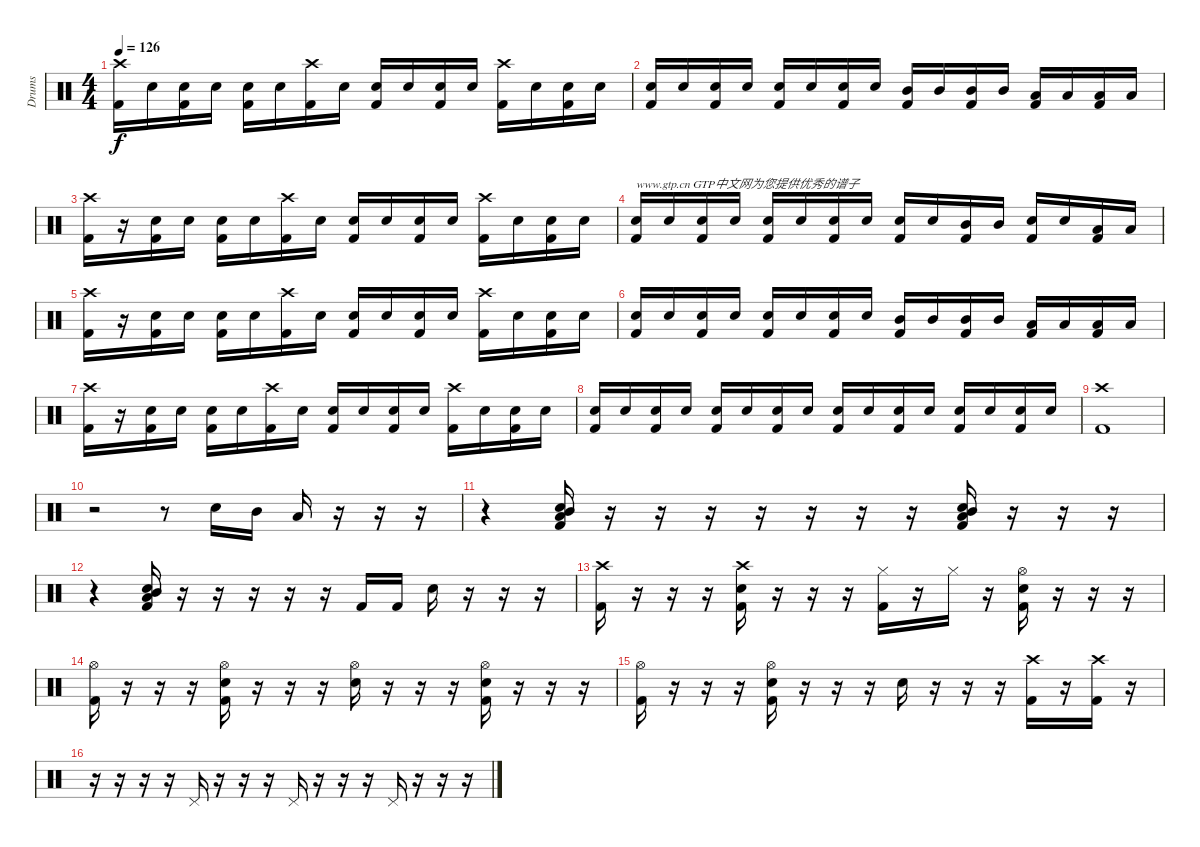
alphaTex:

\track ("Drums" "Drums") {instrument percussion}
\staff {score}
\articulation defaults
\ts (4 4)
\tempo 126
\clef neutral
\ks c
("Crash high (hit)" "Kick (hit) 2").16{dy f} "Snare (hit) 2".16 ("Snare (hit) 2" "Kick (hit) 2").16 "Snare (hit) 2".16 ("Snare (hit) 2" "Kick (hit) 2").16 "Snare (hit) 2".16 ("Crash high (hit)" "Kick (hit) 2").16 "Snare (hit) 2".16 ("Snare (hit) 2" "Kick (hit) 2").16 "Snare (hit) 2".16 ("Snare (hit) 2" "Kick (hit) 2").16 "Snare (hit) 2".16 ("Crash high (hit)" "Kick (hit) 2").16 "Snare (hit) 2".16 ("Snare (hit) 2" "Kick (hit) 2").16 "Snare (hit) 2".16 |
("Snare (hit) 2" "Kick (hit) 2").16 "Snare (hit) 2".16 ("Snare (hit) 2" "Kick (hit) 2").16 "Snare (hit) 2".16 ("Snare (hit) 2" "Kick (hit) 2").16 "Snare (hit) 2".16 ("Snare (hit) 2" "Kick (hit) 2").16 "Snare (hit) 2".16 ("Mid Tom (hit)" "Kick (hit) 2").16 "Mid Tom (hit)".16 ("Mid Tom (hit)" "Kick (hit) 2").16 "Mid Tom (hit)".16 ("Low Floor Tom (hit)" "Kick (hit) 2").16 "Low Floor Tom (hit)".16 ("Low Floor Tom (hit)" "Kick (hit) 2").16 "Low Floor Tom (hit)".16 |
("Crash high (hit)" "Kick (hit) 2").16 r.16 ("Snare (hit) 2" "Kick (hit) 2").16 "Snare (hit) 2".16 ("Snare (hit) 2" "Kick (hit) 2").16 "Snare (hit) 2".16 ("Crash high (hit)" "Kick (hit) 2").16 "Snare (hit) 2".16 ("Snare (hit) 2" "Kick (hit) 2").16 "Snare (hit) 2".16 ("Snare (hit) 2" "Kick (hit) 2").16 "Snare (hit) 2".16 ("Crash high (hit)" "Kick (hit) 2").16 "Snare (hit) 2".16 ("Snare (hit) 2" "Kick (hit) 2").16 "Snare (hit) 2".16 |
("Snare (hit) 2" "Kick (hit) 2").16{txt "www.gtp.cn GTP中文网为您提供优秀的谱子"} "Snare (hit) 2".16 ("Snare (hit) 2" "Kick (hit) 2").16 "Snare (hit) 2".16 ("Snare (hit) 2" "Kick (hit) 2").16 "Snare (hit) 2".16 ("Snare (hit) 2" "Kick (hit) 2").16 "Snare (hit) 2".16 ("Snare (hit) 2" "Kick (hit) 2").16 "Snare (hit) 2".16 ("Mid Tom (hit)" "Kick (hit) 2").16 "Mid Tom (hit)".16 ("Snare (hit) 2" "Kick (hit) 2").16 "Snare (hit) 2".16 ("Low Floor Tom (hit)" "Kick (hit) 2").16 "Low Floor Tom (hit)".16 |
("Crash high (hit)" "Kick (hit) 2").16 r.16 ("Snare (hit) 2" "Kick (hit) 2").16 "Snare (hit) 2".16 ("Snare (hit) 2" "Kick (hit) 2").16 "Snare (hit) 2".16 ("Crash high (hit)" "Kick (hit) 2").16 "Snare (hit) 2".16 ("Snare (hit) 2" "Kick (hit) 2").16 "Snare (hit) 2".16 ("Snare (hit) 2" "Kick (hit) 2").16 "Snare (hit) 2".16 ("Crash high (hit)" "Kick (hit) 2").16 "Snare (hit) 2".16 ("Snare (hit) 2" "Kick (hit) 2").16 "Snare (hit) 2".16 |
("Snare (hit) 2" "Kick (hit) 2").16 "Snare (hit) 2".16 ("Snare (hit) 2" "Kick (hit) 2").16 "Snare (hit) 2".16 ("Snare (hit) 2" "Kick (hit) 2").16 "Snare (hit) 2".16 ("Snare (hit) 2" "Kick (hit) 2").16 "Snare (hit) 2".16 ("Mid Tom (hit)" "Kick (hit) 2").16 "Mid Tom (hit)".16 ("Mid Tom (hit)" "Kick (hit) 2").16 "Mid Tom (hit)".16 ("Low Floor Tom (hit)" "Kick (hit) 2").16 "Low Floor Tom (hit)".16 ("Low Floor Tom (hit)" "Kick (hit) 2").16 "Low Floor Tom (hit)".16 |
("Crash high (hit)" "Kick (hit) 2").16 r.16 ("Snare (hit) 2" "Kick (hit) 2").16 "Snare (hit) 2".16 ("Snare (hit) 2" "Kick (hit) 2").16 "Snare (hit) 2".16 ("Crash high (hit)" "Kick (hit) 2").16 "Snare (hit) 2".16 ("Snare (hit) 2" "Kick (hit) 2").16 "Snare (hit) 2".16 ("Snare (hit) 2" "Kick (hit) 2").16 "Snare (hit) 2".16 ("Crash high (hit)" "Kick (hit) 2").16 "Snare (hit) 2".16 ("Snare (hit) 2" "Kick (hit) 2").16 "Snare (hit) 2".16 |
("Snare (hit) 2" "Kick (hit) 2").16 "Snare (hit) 2".16 ("Snare (hit) 2" "Kick (hit) 2").16 "Snare (hit) 2".16 ("Snare (hit) 2" "Kick (hit) 2").16 "Snare (hit) 2".16 ("Snare (hit) 2" "Kick (hit) 2").16 "Snare (hit) 2".16 ("Snare (hit) 2" "Kick (hit) 2").16 "Snare (hit) 2".16 ("Snare (hit) 2" "Kick (hit) 2").16 "Snare (hit) 2".16 ("Snare (hit) 2" "Kick (hit) 2").16 "Snare (hit) 2".16 ("Snare (hit) 2" "Kick (hit) 2").16 "Snare (hit) 2".16 |
("Crash high (hit)" "Kick (hit) 2").1 |
r.2 r.8 "Snare (hit) 2".16 "Mid Tom (hit)".16 "Low Floor Tom (hit)".16 r.16 r.16 r.16 |
r.4 ("Mid Tom (hit)" "Low Floor Tom (hit)" "Snare (hit) 2" "Kick (hit) 2").16 r.16 r.16 r.16 r.16 r.16 r.16 r.16 ("Mid Tom (hit)" "Low Floor Tom (hit)" "Snare (hit) 2" "Kick (hit) 2").16 r.16 r.16 r.16 |
r.4 ("Mid Tom (hit)" "Low Floor Tom (hit)" "Snare (hit) 2" "Kick (hit) 2").16 r.16 r.16 r.16 r.16 r.16 "Kick (hit) 2".16 "Kick (hit) 2".16 "Snare (hit) 2".16 r.16 r.16 r.16 |
("Crash high (hit)" "Kick (hit) 2").16 r.16 r.16 r.16 ("Crash high (hit)" "Snare (hit) 2" "Kick (hit) 2").16 r.16 r.16 r.16 ("Hi-Hat (closed)" "Kick (hit) 2").16 r.16 "Hi-Hat (closed)".16 r.16 ("Hi-Hat (open)" "Snare (hit) 2" "Kick (hit) 2").16 r.16 r.16 r.16 |
("Hi-Hat (open)" "Kick (hit) 2").16 r.16 r.16 r.16 ("Hi-Hat (open)" "Snare (hit) 2" "Kick (hit) 2").16 r.16 r.16 r.16 ("Hi-Hat (open)" "Snare (hit) 2").16 r.16 r.16 r.16 ("Hi-Hat (open)" "Snare (hit) 2" "Kick (hit) 2").16 r.16 r.16 r.16 |
("Hi-Hat (open)" "Kick (hit) 2").16 r.16 r.16 r.16 ("Hi-Hat (open)" "Snare (hit) 2" "Kick (hit) 2").16 r.16 r.16 r.16 "Snare (hit) 2".16 r.16 r.16 r.16 ("Crash high (hit)" "Kick (hit) 2").16 r.16 ("Crash high (hit)" "Kick (hit) 2").16 r.16 |
r.16 r.16 r.16 r.16 "Pedal Hi-Hat (hit)".16 r.16 r.16 r.16 "Pedal Hi-Hat (hit)".16 r.16 r.16 r.16 "Pedal Hi-Hat (hit)".16 r.16 r.16 r.16
